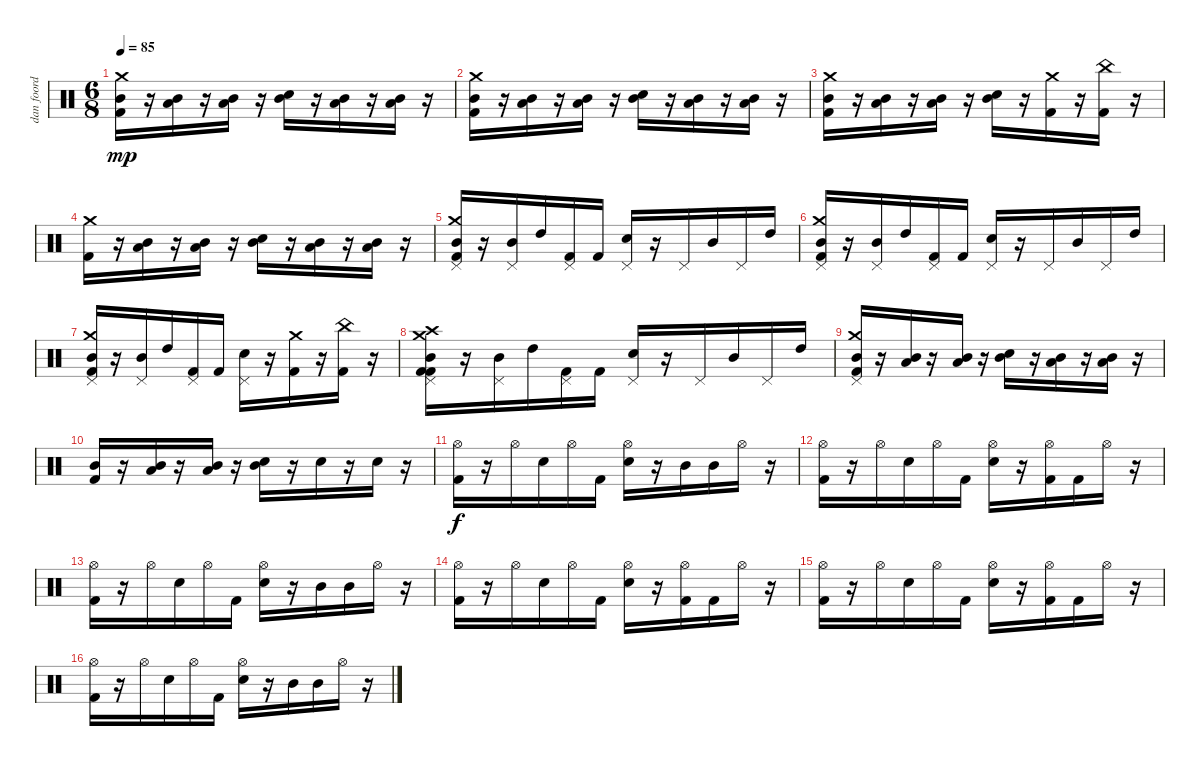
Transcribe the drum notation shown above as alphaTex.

\track ("dan foord" "dan foord") {instrument percussion}
\staff {score}
\articulation defaults
\ts (6 8)
\tempo 85
\clef neutral
\ks c
("Kick (hit) 2" "Mid Tom (hit)" "Crash medium (hit)").16{dy mp} r.16 ("Low Floor Tom (hit)" "Mid Tom (hit)").16 r.16 ("Low Floor Tom (hit)" "Mid Tom (hit)").16 r.16 ("Snare (hit) 2" "Mid Tom (hit)").16 r.16 ("Low Floor Tom (hit)" "Mid Tom (hit)").16 r.16 ("Low Floor Tom (hit)" "Mid Tom (hit)").16 r.16 |
("Kick (hit) 2" "Mid Tom (hit)" "Crash medium (hit)").16 r.16 ("Low Floor Tom (hit)" "Mid Tom (hit)").16 r.16 ("Low Floor Tom (hit)" "Mid Tom (hit)").16 r.16 ("Snare (hit) 2" "Mid Tom (hit)").16 r.16 ("Low Floor Tom (hit)" "Mid Tom (hit)").16 r.16 ("Low Floor Tom (hit)" "Mid Tom (hit)").16 r.16 |
("Kick (hit) 2" "Mid Tom (hit)" "Crash medium (hit)").16 r.16 ("Low Floor Tom (hit)" "Mid Tom (hit)").16 r.16 ("Low Floor Tom (hit)" "Mid Tom (hit)").16 r.16 ("Snare (hit) 2" "Mid Tom (hit)").16 r.16 ("Kick (hit) 2" "Crash medium (hit)").16 r.16 ("Kick (hit) 2" "China (hit)").16 r.16 |
("Kick (hit) 2" "Crash medium (hit)").16 r.16 ("Low Floor Tom (hit)" "Mid Tom (hit)").16 r.16 ("Low Floor Tom (hit)" "Mid Tom (hit)").16 r.16 ("Snare (hit) 2" "Mid Tom (hit)").16 r.16 ("Low Floor Tom (hit)" "Mid Tom (hit)").16 r.16 ("Low Floor Tom (hit)" "Mid Tom (hit)").16 r.16 |
("Kick (hit) 2" "Pedal Hi-Hat (hit)" "Mid Tom (hit)" "Crash medium (hit)").16 r.16 ("Pedal Hi-Hat (hit)" "Mid Tom (hit)").16 "High Tom (hit)".16 ("Kick (hit) 2" "Pedal Hi-Hat (hit)").16 "Kick (hit) 2".16 ("Snare (hit) 2" "Pedal Hi-Hat (hit)").16 r.16 "Pedal Hi-Hat (hit)".16 "Mid Tom (hit)".16 "Pedal Hi-Hat (hit)".16 "High Tom (hit)".16 |
("Kick (hit) 2" "Pedal Hi-Hat (hit)" "Mid Tom (hit)" "Crash medium (hit)").16 r.16 ("Pedal Hi-Hat (hit)" "Mid Tom (hit)").16 "High Tom (hit)".16 ("Kick (hit) 2" "Pedal Hi-Hat (hit)").16 "Kick (hit) 2".16 ("Snare (hit) 2" "Pedal Hi-Hat (hit)").16 r.16 "Pedal Hi-Hat (hit)".16 "Mid Tom (hit)".16 "Pedal Hi-Hat (hit)".16 "High Tom (hit)".16 |
("Kick (hit) 2" "Pedal Hi-Hat (hit)" "Mid Tom (hit)" "Crash medium (hit)").16 r.16 ("Pedal Hi-Hat (hit)" "Mid Tom (hit)").16 "High Tom (hit)".16 ("Kick (hit) 2" "Pedal Hi-Hat (hit)").16 "Kick (hit) 2".16 ("Snare (hit) 2" "Pedal Hi-Hat (hit)").16 r.16 ("Kick (hit) 2" "Crash medium (hit)").16 r.16 ("Kick (hit) 2" "China (hit)").16 r.16 |
("Kick (hit) 2" "Kick (hit) 2" "Pedal Hi-Hat (hit)" "Mid Tom (hit)" "Crash high (hit)" "Crash medium (hit)").16 r.16 ("Pedal Hi-Hat (hit)" "Mid Tom (hit)").16 "High Tom (hit)".16 ("Kick (hit) 2" "Pedal Hi-Hat (hit)").16 "Kick (hit) 2".16 ("Snare (hit) 2" "Pedal Hi-Hat (hit)").16 r.16 "Pedal Hi-Hat (hit)".16 "Mid Tom (hit)".16 "Pedal Hi-Hat (hit)".16 "High Tom (hit)".16 |
("Kick (hit) 2" "Pedal Hi-Hat (hit)" "Mid Tom (hit)" "Crash medium (hit)").16 r.16 ("Low Floor Tom (hit)" "Mid Tom (hit)").16 r.16 ("Low Floor Tom (hit)" "Mid Tom (hit)").16 r.16 ("Snare (hit) 2" "Mid Tom (hit)").16 r.16 ("Low Floor Tom (hit)" "Mid Tom (hit)").16 r.16 ("Low Floor Tom (hit)" "Mid Tom (hit)").16 r.16 |
("Kick (hit) 2" "Mid Tom (hit)").16 r.16 ("Low Floor Tom (hit)" "Mid Tom (hit)").16 r.16 ("Low Floor Tom (hit)" "Mid Tom (hit)").16 r.16 ("Snare (hit) 2" "Mid Tom (hit)").16 r.16 "Snare (hit) 2".16 r.16 "Snare (hit) 2".16 r.16 |
("Kick (hit) 2" "Hi-Hat (open)").16{dy f} r.16 "Hi-Hat (open)".16 "Snare (hit) 2".16 "Hi-Hat (open)".16 "Kick (hit) 2".16 ("Snare (hit) 2" "Hi-Hat (open)").16 r.16 "Mid Tom (hit)".16 "Mid Tom (hit)".16 "Hi-Hat (open)".16 r.16 |
("Kick (hit) 2" "Hi-Hat (open)").16 r.16 "Hi-Hat (open)".16 "Snare (hit) 2".16 "Hi-Hat (open)".16 "Kick (hit) 2".16 ("Snare (hit) 2" "Hi-Hat (open)").16 r.16 ("Kick (hit) 2" "Hi-Hat (open)").16 "Kick (hit) 2".16 "Hi-Hat (open)".16 r.16 |
("Kick (hit) 2" "Hi-Hat (open)").16 r.16 "Hi-Hat (open)".16 "Snare (hit) 2".16 "Hi-Hat (open)".16 "Kick (hit) 2".16 ("Snare (hit) 2" "Hi-Hat (open)").16 r.16 "Mid Tom (hit)".16 "Mid Tom (hit)".16 "Hi-Hat (open)".16 r.16 |
("Kick (hit) 2" "Hi-Hat (open)").16 r.16 "Hi-Hat (open)".16 "Snare (hit) 2".16 "Hi-Hat (open)".16 "Kick (hit) 2".16 ("Snare (hit) 2" "Hi-Hat (open)").16 r.16 ("Kick (hit) 2" "Hi-Hat (open)").16 "Kick (hit) 2".16 "Hi-Hat (open)".16 r.16 |
("Kick (hit) 2" "Hi-Hat (open)").16 r.16 "Hi-Hat (open)".16 "Snare (hit) 2".16 "Hi-Hat (open)".16 "Kick (hit) 2".16 ("Snare (hit) 2" "Hi-Hat (open)").16 r.16 ("Kick (hit) 2" "Hi-Hat (open)").16 "Kick (hit) 2".16 "Hi-Hat (open)".16 r.16 |
("Kick (hit) 2" "Hi-Hat (open)").16 r.16 "Hi-Hat (open)".16 "Snare (hit) 2".16 "Hi-Hat (open)".16 "Kick (hit) 2".16 ("Snare (hit) 2" "Hi-Hat (open)").16 r.16 "Mid Tom (hit)".16 "Mid Tom (hit)".16 "Hi-Hat (open)".16 r.16
